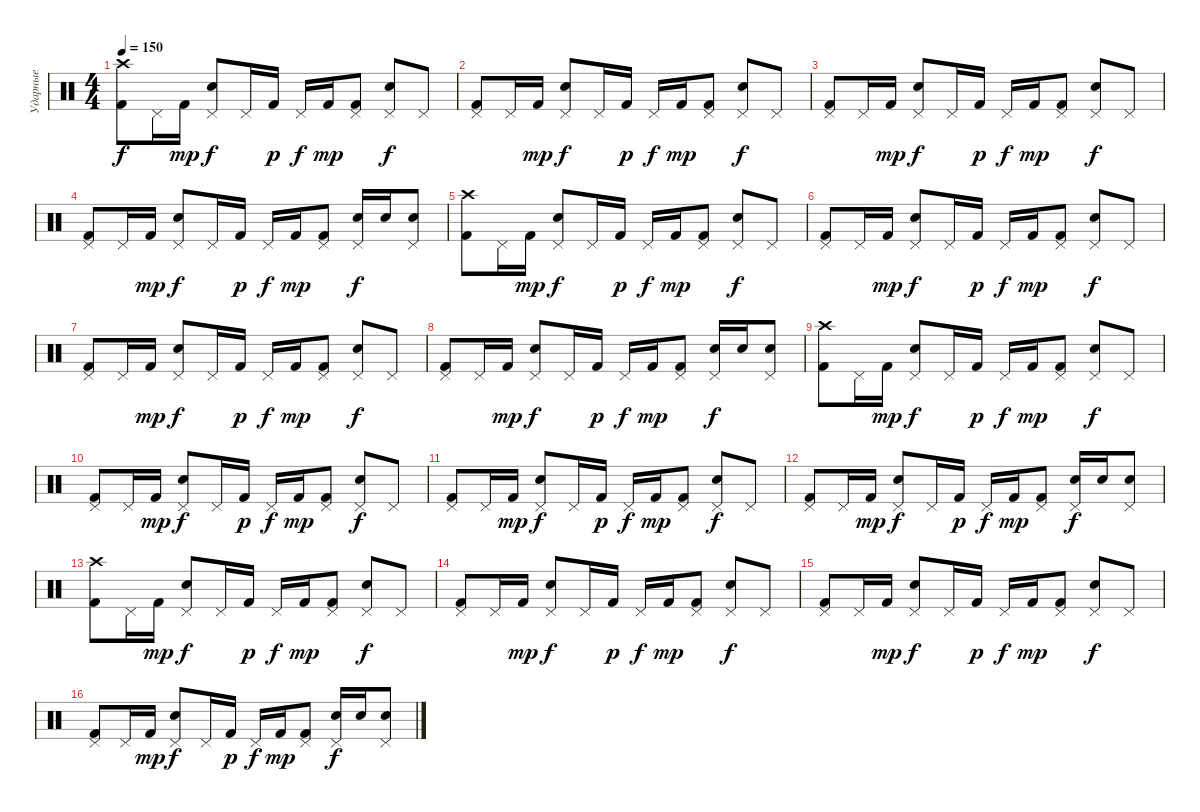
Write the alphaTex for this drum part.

\track ("Ударные" "Ударные") {instrument percussion}
\staff {score}
\articulation defaults
\ts (4 4)
\tempo 150
\clef neutral
\ks c
("Crash high (hit)" "Kick (hit) 2").8{dy f} "Pedal Hi-Hat (hit)".16 "Kick (hit) 2".16{dy mp} ("Pedal Hi-Hat (hit)" "Snare (hit) 2").8{dy f} "Pedal Hi-Hat (hit)".16 "Kick (hit) 2".16{dy p} "Pedal Hi-Hat (hit)".16{dy f} "Kick (hit) 2".16{dy mp} ("Pedal Hi-Hat (hit)" "Kick (hit) 2").8 ("Pedal Hi-Hat (hit)" "Snare (hit) 2").8{dy f} "Pedal Hi-Hat (hit)".8 |
("Pedal Hi-Hat (hit)" "Kick (hit) 2").8 "Pedal Hi-Hat (hit)".16 "Kick (hit) 2".16{dy mp} ("Pedal Hi-Hat (hit)" "Snare (hit) 2").8{dy f} "Pedal Hi-Hat (hit)".16 "Kick (hit) 2".16{dy p} "Pedal Hi-Hat (hit)".16{dy f} "Kick (hit) 2".16{dy mp} ("Pedal Hi-Hat (hit)" "Kick (hit) 2").8 ("Pedal Hi-Hat (hit)" "Snare (hit) 2").8{dy f} "Pedal Hi-Hat (hit)".8 |
("Pedal Hi-Hat (hit)" "Kick (hit) 2").8 "Pedal Hi-Hat (hit)".16 "Kick (hit) 2".16{dy mp} ("Pedal Hi-Hat (hit)" "Snare (hit) 2").8{dy f} "Pedal Hi-Hat (hit)".16 "Kick (hit) 2".16{dy p} "Pedal Hi-Hat (hit)".16{dy f} "Kick (hit) 2".16{dy mp} ("Pedal Hi-Hat (hit)" "Kick (hit) 2").8 ("Pedal Hi-Hat (hit)" "Snare (hit) 2").8{dy f} "Pedal Hi-Hat (hit)".8 |
("Pedal Hi-Hat (hit)" "Kick (hit) 2").8 "Pedal Hi-Hat (hit)".16 "Kick (hit) 2".16{dy mp} ("Pedal Hi-Hat (hit)" "Snare (hit) 2").8{dy f} "Pedal Hi-Hat (hit)".16 "Kick (hit) 2".16{dy p} "Pedal Hi-Hat (hit)".16{dy f} "Kick (hit) 2".16{dy mp} ("Pedal Hi-Hat (hit)" "Kick (hit) 2").8 ("Pedal Hi-Hat (hit)" "Snare (hit) 2").16{dy f} "Snare (hit) 2".16 ("Pedal Hi-Hat (hit)" "Snare (hit) 2").8 |
("Crash high (hit)" "Kick (hit) 2").8 "Pedal Hi-Hat (hit)".16 "Kick (hit) 2".16{dy mp} ("Pedal Hi-Hat (hit)" "Snare (hit) 2").8{dy f} "Pedal Hi-Hat (hit)".16 "Kick (hit) 2".16{dy p} "Pedal Hi-Hat (hit)".16{dy f} "Kick (hit) 2".16{dy mp} ("Pedal Hi-Hat (hit)" "Kick (hit) 2").8 ("Pedal Hi-Hat (hit)" "Snare (hit) 2").8{dy f} "Pedal Hi-Hat (hit)".8 |
("Pedal Hi-Hat (hit)" "Kick (hit) 2").8 "Pedal Hi-Hat (hit)".16 "Kick (hit) 2".16{dy mp} ("Pedal Hi-Hat (hit)" "Snare (hit) 2").8{dy f} "Pedal Hi-Hat (hit)".16 "Kick (hit) 2".16{dy p} "Pedal Hi-Hat (hit)".16{dy f} "Kick (hit) 2".16{dy mp} ("Pedal Hi-Hat (hit)" "Kick (hit) 2").8 ("Pedal Hi-Hat (hit)" "Snare (hit) 2").8{dy f} "Pedal Hi-Hat (hit)".8 |
("Pedal Hi-Hat (hit)" "Kick (hit) 2").8 "Pedal Hi-Hat (hit)".16 "Kick (hit) 2".16{dy mp} ("Pedal Hi-Hat (hit)" "Snare (hit) 2").8{dy f} "Pedal Hi-Hat (hit)".16 "Kick (hit) 2".16{dy p} "Pedal Hi-Hat (hit)".16{dy f} "Kick (hit) 2".16{dy mp} ("Pedal Hi-Hat (hit)" "Kick (hit) 2").8 ("Pedal Hi-Hat (hit)" "Snare (hit) 2").8{dy f} "Pedal Hi-Hat (hit)".8 |
("Pedal Hi-Hat (hit)" "Kick (hit) 2").8 "Pedal Hi-Hat (hit)".16 "Kick (hit) 2".16{dy mp} ("Pedal Hi-Hat (hit)" "Snare (hit) 2").8{dy f} "Pedal Hi-Hat (hit)".16 "Kick (hit) 2".16{dy p} "Pedal Hi-Hat (hit)".16{dy f} "Kick (hit) 2".16{dy mp} ("Pedal Hi-Hat (hit)" "Kick (hit) 2").8 ("Pedal Hi-Hat (hit)" "Snare (hit) 2").16{dy f} "Snare (hit) 2".16 ("Pedal Hi-Hat (hit)" "Snare (hit) 2").8 |
("Crash high (hit)" "Kick (hit) 2").8 "Pedal Hi-Hat (hit)".16 "Kick (hit) 2".16{dy mp} ("Pedal Hi-Hat (hit)" "Snare (hit) 2").8{dy f} "Pedal Hi-Hat (hit)".16 "Kick (hit) 2".16{dy p} "Pedal Hi-Hat (hit)".16{dy f} "Kick (hit) 2".16{dy mp} ("Pedal Hi-Hat (hit)" "Kick (hit) 2").8 ("Pedal Hi-Hat (hit)" "Snare (hit) 2").8{dy f} "Pedal Hi-Hat (hit)".8 |
("Pedal Hi-Hat (hit)" "Kick (hit) 2").8 "Pedal Hi-Hat (hit)".16 "Kick (hit) 2".16{dy mp} ("Pedal Hi-Hat (hit)" "Snare (hit) 2").8{dy f} "Pedal Hi-Hat (hit)".16 "Kick (hit) 2".16{dy p} "Pedal Hi-Hat (hit)".16{dy f} "Kick (hit) 2".16{dy mp} ("Pedal Hi-Hat (hit)" "Kick (hit) 2").8 ("Pedal Hi-Hat (hit)" "Snare (hit) 2").8{dy f} "Pedal Hi-Hat (hit)".8 |
("Pedal Hi-Hat (hit)" "Kick (hit) 2").8 "Pedal Hi-Hat (hit)".16 "Kick (hit) 2".16{dy mp} ("Pedal Hi-Hat (hit)" "Snare (hit) 2").8{dy f} "Pedal Hi-Hat (hit)".16 "Kick (hit) 2".16{dy p} "Pedal Hi-Hat (hit)".16{dy f} "Kick (hit) 2".16{dy mp} ("Pedal Hi-Hat (hit)" "Kick (hit) 2").8 ("Pedal Hi-Hat (hit)" "Snare (hit) 2").8{dy f} "Pedal Hi-Hat (hit)".8 |
("Pedal Hi-Hat (hit)" "Kick (hit) 2").8 "Pedal Hi-Hat (hit)".16 "Kick (hit) 2".16{dy mp} ("Pedal Hi-Hat (hit)" "Snare (hit) 2").8{dy f} "Pedal Hi-Hat (hit)".16 "Kick (hit) 2".16{dy p} "Pedal Hi-Hat (hit)".16{dy f} "Kick (hit) 2".16{dy mp} ("Pedal Hi-Hat (hit)" "Kick (hit) 2").8 ("Pedal Hi-Hat (hit)" "Snare (hit) 2").16{dy f} "Snare (hit) 2".16 ("Pedal Hi-Hat (hit)" "Snare (hit) 2").8 |
("Crash high (hit)" "Kick (hit) 2").8 "Pedal Hi-Hat (hit)".16 "Kick (hit) 2".16{dy mp} ("Pedal Hi-Hat (hit)" "Snare (hit) 2").8{dy f} "Pedal Hi-Hat (hit)".16 "Kick (hit) 2".16{dy p} "Pedal Hi-Hat (hit)".16{dy f} "Kick (hit) 2".16{dy mp} ("Pedal Hi-Hat (hit)" "Kick (hit) 2").8 ("Pedal Hi-Hat (hit)" "Snare (hit) 2").8{dy f} "Pedal Hi-Hat (hit)".8 |
("Pedal Hi-Hat (hit)" "Kick (hit) 2").8 "Pedal Hi-Hat (hit)".16 "Kick (hit) 2".16{dy mp} ("Pedal Hi-Hat (hit)" "Snare (hit) 2").8{dy f} "Pedal Hi-Hat (hit)".16 "Kick (hit) 2".16{dy p} "Pedal Hi-Hat (hit)".16{dy f} "Kick (hit) 2".16{dy mp} ("Pedal Hi-Hat (hit)" "Kick (hit) 2").8 ("Pedal Hi-Hat (hit)" "Snare (hit) 2").8{dy f} "Pedal Hi-Hat (hit)".8 |
("Pedal Hi-Hat (hit)" "Kick (hit) 2").8 "Pedal Hi-Hat (hit)".16 "Kick (hit) 2".16{dy mp} ("Pedal Hi-Hat (hit)" "Snare (hit) 2").8{dy f} "Pedal Hi-Hat (hit)".16 "Kick (hit) 2".16{dy p} "Pedal Hi-Hat (hit)".16{dy f} "Kick (hit) 2".16{dy mp} ("Pedal Hi-Hat (hit)" "Kick (hit) 2").8 ("Pedal Hi-Hat (hit)" "Snare (hit) 2").8{dy f} "Pedal Hi-Hat (hit)".8 |
("Pedal Hi-Hat (hit)" "Kick (hit) 2").8 "Pedal Hi-Hat (hit)".16 "Kick (hit) 2".16{dy mp} ("Pedal Hi-Hat (hit)" "Snare (hit) 2").8{dy f} "Pedal Hi-Hat (hit)".16 "Kick (hit) 2".16{dy p} "Pedal Hi-Hat (hit)".16{dy f} "Kick (hit) 2".16{dy mp} ("Pedal Hi-Hat (hit)" "Kick (hit) 2").8 ("Pedal Hi-Hat (hit)" "Snare (hit) 2").16{dy f} "Snare (hit) 2".16 ("Pedal Hi-Hat (hit)" "Snare (hit) 2").8
